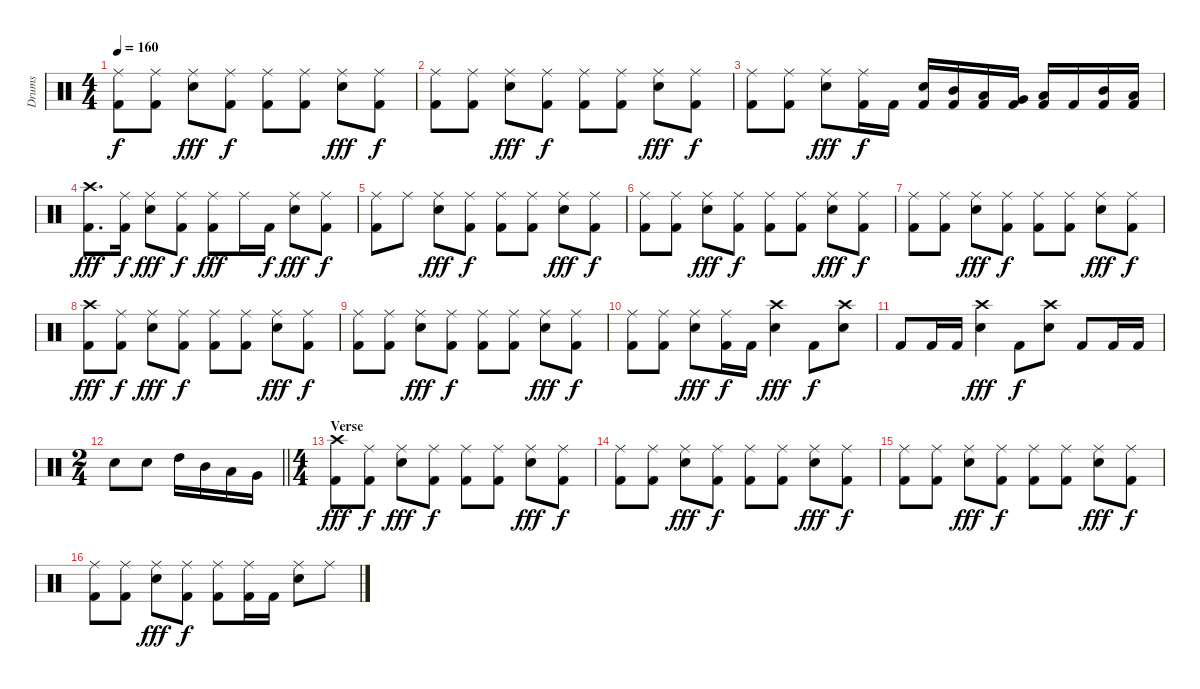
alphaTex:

\track ("Drums" "Drums") {instrument percussion}
\staff {score}
\articulation defaults
\ts (4 4)
\tempo 160
\clef neutral
\ks c
("Kick (hit) 2" "Ride (middle)").8{dy f} ("Kick (hit) 2" "Ride (middle)").8 ("Snare (hit) 2" "Ride (middle)").8{dy fff} ("Kick (hit) 2" "Ride (middle)").8{dy f} ("Kick (hit) 2" "Ride (middle)").8 ("Kick (hit) 2" "Ride (middle)").8 ("Snare (hit) 2" "Ride (middle)").8{dy fff} ("Kick (hit) 2" "Ride (middle)").8{dy f} |
("Kick (hit) 2" "Ride (middle)").8 ("Kick (hit) 2" "Ride (middle)").8 ("Snare (hit) 2" "Ride (middle)").8{dy fff} ("Kick (hit) 2" "Ride (middle)").8{dy f} ("Kick (hit) 2" "Ride (middle)").8 ("Kick (hit) 2" "Ride (middle)").8 ("Snare (hit) 2" "Ride (middle)").8{dy fff} ("Kick (hit) 2" "Ride (middle)").8{dy f} |
("Kick (hit) 2" "Ride (middle)").8 ("Kick (hit) 2" "Ride (middle)").8 ("Snare (hit) 2" "Ride (middle)").8{dy fff} ("Kick (hit) 2" "Ride (middle)").16{dy f} "Kick (hit) 2".16 ("Kick (hit) 2" "Snare (hit) 2").16 ("Kick (hit) 2" "Mid Tom (hit)").16 ("Kick (hit) 2" "Low Tom (hit)").16 ("Kick (hit) 2" "Very Low Tom (hit)").16 ("Kick (hit) 2" "Low Floor Tom (hit)").16 "Kick (hit) 2".16 ("Kick (hit) 2" "Mid Tom (hit)").16 ("Kick (hit) 2" "Low Tom (hit)").16 |
("Kick (hit) 2" "Crash high (hit)").8{d dy fff} ("Kick (hit) 2" "Ride (middle)").16{dy f} ("Snare (hit) 2" "Ride (middle)").8{dy fff} ("Kick (hit) 2" "Ride (middle)").8{dy f} ("Kick (hit) 2" "Ride (middle)").8{dy fff} "Ride (middle)".16 "Kick (hit) 2".16{dy f} ("Snare (hit) 2" "Ride (middle)").8{dy fff} ("Kick (hit) 2" "Ride (middle)").8{dy f} |
("Kick (hit) 2" "Ride (middle)").8 "Ride (middle)".8 ("Snare (hit) 2" "Ride (middle)").8{dy fff} ("Kick (hit) 2" "Ride (middle)").8{dy f} ("Kick (hit) 2" "Ride (middle)").8 ("Kick (hit) 2" "Ride (middle)").8 ("Snare (hit) 2" "Ride (middle)").8{dy fff} ("Kick (hit) 2" "Ride (middle)").8{dy f} |
("Kick (hit) 2" "Ride (middle)").8 ("Kick (hit) 2" "Ride (middle)").8 ("Snare (hit) 2" "Ride (middle)").8{dy fff} ("Kick (hit) 2" "Ride (middle)").8{dy f} ("Kick (hit) 2" "Ride (middle)").8 ("Kick (hit) 2" "Ride (middle)").8 ("Snare (hit) 2" "Ride (middle)").8{dy fff} ("Kick (hit) 2" "Ride (middle)").8{dy f} |
("Kick (hit) 2" "Ride (middle)").8 ("Kick (hit) 2" "Ride (middle)").8 ("Snare (hit) 2" "Ride (middle)").8{dy fff} ("Kick (hit) 2" "Ride (middle)").8{dy f} ("Kick (hit) 2" "Ride (middle)").8 ("Kick (hit) 2" "Ride (middle)").8 ("Snare (hit) 2" "Ride (middle)").8{dy fff} ("Kick (hit) 2" "Ride (middle)").8{dy f} |
("Kick (hit) 2" "Crash high (hit)").8{dy fff} ("Kick (hit) 2" "Ride (middle)").8{dy f} ("Snare (hit) 2" "Ride (middle)").8{dy fff} ("Kick (hit) 2" "Ride (middle)").8{dy f} ("Kick (hit) 2" "Ride (middle)").8 ("Kick (hit) 2" "Ride (middle)").8 ("Snare (hit) 2" "Ride (middle)").8{dy fff} ("Kick (hit) 2" "Ride (middle)").8{dy f} |
("Kick (hit) 2" "Ride (middle)").8 ("Kick (hit) 2" "Ride (middle)").8 ("Snare (hit) 2" "Ride (middle)").8{dy fff} ("Kick (hit) 2" "Ride (middle)").8{dy f} ("Kick (hit) 2" "Ride (middle)").8 ("Kick (hit) 2" "Ride (middle)").8 ("Snare (hit) 2" "Ride (middle)").8{dy fff} ("Kick (hit) 2" "Ride (middle)").8{dy f} |
("Kick (hit) 2" "Ride (middle)").8 ("Kick (hit) 2" "Ride (middle)").8 ("Snare (hit) 2" "Ride (middle)").8{dy fff} ("Kick (hit) 2" "Ride (middle)").16{dy f} "Kick (hit) 2".16 ("Snare (hit) 2" "Crash high (hit)").4{dy fff} "Kick (hit) 2".8{dy f} ("Snare (hit) 2" "Crash high (hit)").8 |
"Kick (hit) 2".8 "Kick (hit) 2".16 "Kick (hit) 2".16 ("Snare (hit) 2" "Crash high (hit)").4{dy fff} "Kick (hit) 2".8{dy f} ("Snare (hit) 2" "Crash high (hit)").8 "Kick (hit) 2".8 "Kick (hit) 2".16 "Kick (hit) 2".16 |
\ts (2 4)
\barLineRight lightlight "Snare (hit) 2".8 "Snare (hit) 2".8 "High Tom (hit)".16 "Mid Tom (hit)".16 "Low Tom (hit)".16 "Very Low Tom (hit)".16
|
\ts (4 4)
\section ("" "Verse")
("Kick (hit) 2" "Crash high (hit)").8{dy fff} ("Kick (hit) 2" "Ride (middle)").8{dy f} ("Snare (hit) 2" "Ride (middle)").8{dy fff} ("Kick (hit) 2" "Ride (middle)").8{dy f} ("Kick (hit) 2" "Ride (middle)").8 ("Kick (hit) 2" "Ride (middle)").8 ("Snare (hit) 2" "Ride (middle)").8{dy fff} ("Kick (hit) 2" "Ride (middle)").8{dy f} |
("Kick (hit) 2" "Ride (middle)").8 ("Kick (hit) 2" "Ride (middle)").8 ("Snare (hit) 2" "Ride (middle)").8{dy fff} ("Kick (hit) 2" "Ride (middle)").8{dy f} ("Kick (hit) 2" "Ride (middle)").8 ("Kick (hit) 2" "Ride (middle)").8 ("Snare (hit) 2" "Ride (middle)").8{dy fff} ("Kick (hit) 2" "Ride (middle)").8{dy f} |
("Kick (hit) 2" "Ride (middle)").8 ("Kick (hit) 2" "Ride (middle)").8 ("Snare (hit) 2" "Ride (middle)").8{dy fff} ("Kick (hit) 2" "Ride (middle)").8{dy f} ("Kick (hit) 2" "Ride (middle)").8 ("Kick (hit) 2" "Ride (middle)").8 ("Snare (hit) 2" "Ride (middle)").8{dy fff} ("Kick (hit) 2" "Ride (middle)").8{dy f} |
("Kick (hit) 2" "Ride (middle)").8 ("Kick (hit) 2" "Ride (middle)").8 ("Snare (hit) 2" "Ride (middle)").8{dy fff} ("Kick (hit) 2" "Ride (middle)").8{dy f} ("Kick (hit) 2" "Ride (middle)").8 ("Kick (hit) 2" "Ride (middle)").16 "Kick (hit) 2".16 ("Snare (hit) 2" "Ride (middle)").8 "Ride (middle)".8
